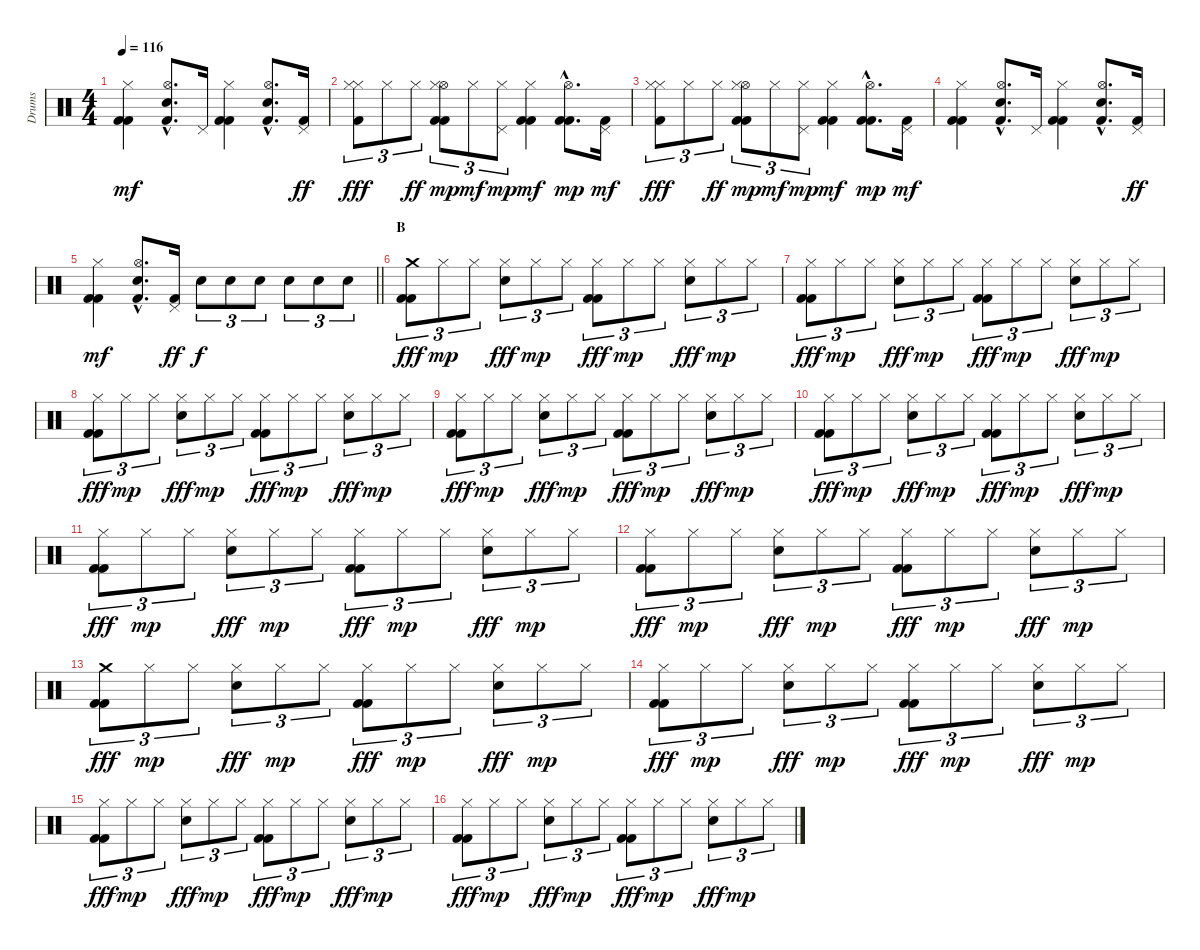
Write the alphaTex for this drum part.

\track ("Drums" "Drums") {instrument percussion}
\staff {score}
\articulation defaults
\ts (4 4)
\tempo 116
\clef neutral
\ks aminor
("Hi-Hat (closed)" "Kick (hit) 2" "Kick (hit) 2").4{dy mf} ("Hi-Hat (open)"{hac} "Electric Snare (hit)"{hac} "Kick (hit) 2"{hac}).8{d} "Pedal Hi-Hat (hit)".16 ("Hi-Hat (closed)" "Kick (hit) 2" "Kick (hit) 2").4 ("Hi-Hat (open)"{hac} "Electric Snare (hit)"{hac} "Kick (hit) 2"{hac}).8{d} ("Pedal Hi-Hat (hit)" "Kick (hit) 2").16{dy ff} |
("Hi-Hat (closed)" "Hi-Hat (closed)" "Kick (hit) 2").8{tu (3 2) dy fff} "Hi-Hat (closed)".8{tu (3 2)} "Hi-Hat (closed)".8{tu (3 2) dy ff} ("Hi-Hat (open)" "Hi-Hat (closed)" "Kick (hit) 2" "Kick (hit) 2").8{tu (3 2) dy mp} "Hi-Hat (closed)".8{tu (3 2) dy mf} ("Pedal Hi-Hat (hit)" "Hi-Hat (closed)").8{tu (3 2) dy mp} ("Hi-Hat (closed)" "Kick (hit) 2" "Kick (hit) 2").4{dy mf} ("Hi-Hat (open)"{hac} "Kick (hit) 2"{hac} "Kick (hit) 2"{hac}).8{d dy mp} ("Pedal Hi-Hat (hit)" "Kick (hit) 2").16{dy mf} |
("Hi-Hat (closed)" "Hi-Hat (closed)" "Kick (hit) 2").8{tu (3 2) dy fff} "Hi-Hat (closed)".8{tu (3 2)} "Hi-Hat (closed)".8{tu (3 2) dy ff} ("Hi-Hat (open)" "Hi-Hat (closed)" "Kick (hit) 2" "Kick (hit) 2").8{tu (3 2) dy mp} "Hi-Hat (closed)".8{tu (3 2) dy mf} ("Pedal Hi-Hat (hit)" "Hi-Hat (closed)").8{tu (3 2) dy mp} ("Hi-Hat (closed)" "Kick (hit) 2" "Kick (hit) 2").4{dy mf} ("Hi-Hat (open)"{hac} "Kick (hit) 2"{hac} "Kick (hit) 2"{hac}).8{d dy mp} ("Pedal Hi-Hat (hit)" "Kick (hit) 2").16{dy mf} |
("Hi-Hat (closed)" "Kick (hit) 2" "Kick (hit) 2").4 ("Hi-Hat (open)"{hac} "Electric Snare (hit)"{hac} "Kick (hit) 2"{hac}).8{d} "Pedal Hi-Hat (hit)".16 ("Hi-Hat (closed)" "Kick (hit) 2" "Kick (hit) 2").4 ("Hi-Hat (open)"{hac} "Electric Snare (hit)"{hac} "Kick (hit) 2"{hac}).8{d} ("Pedal Hi-Hat (hit)" "Kick (hit) 2").16{dy ff} |
\barLineRight lightlight
("Hi-Hat (closed)" "Kick (hit) 2" "Kick (hit) 2").4{dy mf} ("Hi-Hat (open)"{hac} "Electric Snare (hit)"{hac} "Kick (hit) 2"{hac}).8{d} ("Pedal Hi-Hat (hit)" "Kick (hit) 2").16{dy ff} "Electric Snare (hit)".8{tu (3 2) dy f} "Electric Snare (hit)".8{tu (3 2)} "Electric Snare (hit)".8{tu (3 2)} "Electric Snare (hit)".8{tu (3 2)} "Electric Snare (hit)".8{tu (3 2)} "Electric Snare (hit)".8{tu (3 2)} |
\section ("" "B")
("Crash medium (hit)" "Kick (hit) 2" "Kick (hit) 2").8{tu (3 2) dy fff} "Hi-Hat (closed)".8{tu (3 2) dy mp} "Hi-Hat (closed)".8{tu (3 2)} ("Hi-Hat (closed)" "Snare (hit) 2").8{tu (3 2) dy fff} "Hi-Hat (closed)".8{tu (3 2) dy mp} "Hi-Hat (closed)".8{tu (3 2)} ("Hi-Hat (closed)" "Kick (hit) 2" "Kick (hit) 2").8{tu (3 2) dy fff} "Hi-Hat (closed)".8{tu (3 2) dy mp} "Hi-Hat (closed)".8{tu (3 2)} ("Hi-Hat (closed)" "Snare (hit) 2").8{tu (3 2) dy fff} "Hi-Hat (closed)".8{tu (3 2) dy mp} "Hi-Hat (closed)".8{tu (3 2)} |
("Hi-Hat (closed)" "Kick (hit) 2" "Kick (hit) 2").8{tu (3 2) dy fff} "Hi-Hat (closed)".8{tu (3 2) dy mp} "Hi-Hat (closed)".8{tu (3 2)} ("Hi-Hat (closed)" "Snare (hit) 2").8{tu (3 2) dy fff} "Hi-Hat (closed)".8{tu (3 2) dy mp} "Hi-Hat (closed)".8{tu (3 2)} ("Hi-Hat (closed)" "Kick (hit) 2" "Kick (hit) 2").8{tu (3 2) dy fff} "Hi-Hat (closed)".8{tu (3 2) dy mp} "Hi-Hat (closed)".8{tu (3 2)} ("Hi-Hat (closed)" "Snare (hit) 2").8{tu (3 2) dy fff} "Hi-Hat (closed)".8{tu (3 2) dy mp} "Hi-Hat (closed)".8{tu (3 2)} |
("Hi-Hat (closed)" "Kick (hit) 2" "Kick (hit) 2").8{tu (3 2) dy fff} "Hi-Hat (closed)".8{tu (3 2) dy mp} "Hi-Hat (closed)".8{tu (3 2)} ("Hi-Hat (closed)" "Snare (hit) 2").8{tu (3 2) dy fff} "Hi-Hat (closed)".8{tu (3 2) dy mp} "Hi-Hat (closed)".8{tu (3 2)} ("Hi-Hat (closed)" "Kick (hit) 2" "Kick (hit) 2").8{tu (3 2) dy fff} "Hi-Hat (closed)".8{tu (3 2) dy mp} "Hi-Hat (closed)".8{tu (3 2)} ("Hi-Hat (closed)" "Snare (hit) 2").8{tu (3 2) dy fff} "Hi-Hat (closed)".8{tu (3 2) dy mp} "Hi-Hat (closed)".8{tu (3 2)} |
("Hi-Hat (closed)" "Kick (hit) 2" "Kick (hit) 2").8{tu (3 2) dy fff} "Hi-Hat (closed)".8{tu (3 2) dy mp} "Hi-Hat (closed)".8{tu (3 2)} ("Hi-Hat (closed)" "Snare (hit) 2").8{tu (3 2) dy fff} "Hi-Hat (closed)".8{tu (3 2) dy mp} "Hi-Hat (closed)".8{tu (3 2)} ("Hi-Hat (closed)" "Kick (hit) 2" "Kick (hit) 2").8{tu (3 2) dy fff} "Hi-Hat (closed)".8{tu (3 2) dy mp} "Hi-Hat (closed)".8{tu (3 2)} ("Hi-Hat (closed)" "Snare (hit) 2").8{tu (3 2) dy fff} "Hi-Hat (closed)".8{tu (3 2) dy mp} "Hi-Hat (closed)".8{tu (3 2)} |
("Hi-Hat (closed)" "Kick (hit) 2" "Kick (hit) 2").8{tu (3 2) dy fff} "Hi-Hat (closed)".8{tu (3 2) dy mp} "Hi-Hat (closed)".8{tu (3 2)} ("Hi-Hat (closed)" "Snare (hit) 2").8{tu (3 2) dy fff} "Hi-Hat (closed)".8{tu (3 2) dy mp} "Hi-Hat (closed)".8{tu (3 2)} ("Hi-Hat (closed)" "Kick (hit) 2" "Kick (hit) 2").8{tu (3 2) dy fff} "Hi-Hat (closed)".8{tu (3 2) dy mp} "Hi-Hat (closed)".8{tu (3 2)} ("Hi-Hat (closed)" "Snare (hit) 2").8{tu (3 2) dy fff} "Hi-Hat (closed)".8{tu (3 2) dy mp} "Hi-Hat (closed)".8{tu (3 2)} |
("Hi-Hat (closed)" "Kick (hit) 2" "Kick (hit) 2").8{tu (3 2) dy fff} "Hi-Hat (closed)".8{tu (3 2) dy mp} "Hi-Hat (closed)".8{tu (3 2)} ("Hi-Hat (closed)" "Snare (hit) 2").8{tu (3 2) dy fff} "Hi-Hat (closed)".8{tu (3 2) dy mp} "Hi-Hat (closed)".8{tu (3 2)} ("Hi-Hat (closed)" "Kick (hit) 2" "Kick (hit) 2").8{tu (3 2) dy fff} "Hi-Hat (closed)".8{tu (3 2) dy mp} "Hi-Hat (closed)".8{tu (3 2)} ("Hi-Hat (closed)" "Snare (hit) 2").8{tu (3 2) dy fff} "Hi-Hat (closed)".8{tu (3 2) dy mp} "Hi-Hat (closed)".8{tu (3 2)} |
("Hi-Hat (closed)" "Kick (hit) 2" "Kick (hit) 2").8{tu (3 2) dy fff} "Hi-Hat (closed)".8{tu (3 2) dy mp} "Hi-Hat (closed)".8{tu (3 2)} ("Hi-Hat (closed)" "Snare (hit) 2").8{tu (3 2) dy fff} "Hi-Hat (closed)".8{tu (3 2) dy mp} "Hi-Hat (closed)".8{tu (3 2)} ("Hi-Hat (closed)" "Kick (hit) 2" "Kick (hit) 2").8{tu (3 2) dy fff} "Hi-Hat (closed)".8{tu (3 2) dy mp} "Hi-Hat (closed)".8{tu (3 2)} ("Hi-Hat (closed)" "Snare (hit) 2").8{tu (3 2) dy fff} "Hi-Hat (closed)".8{tu (3 2) dy mp} "Hi-Hat (closed)".8{tu (3 2)} |
("Crash medium (hit)" "Kick (hit) 2" "Kick (hit) 2").8{tu (3 2) dy fff} "Hi-Hat (closed)".8{tu (3 2) dy mp} "Hi-Hat (closed)".8{tu (3 2)} ("Hi-Hat (closed)" "Snare (hit) 2").8{tu (3 2) dy fff} "Hi-Hat (closed)".8{tu (3 2) dy mp} "Hi-Hat (closed)".8{tu (3 2)} ("Hi-Hat (closed)" "Kick (hit) 2" "Kick (hit) 2").8{tu (3 2) dy fff} "Hi-Hat (closed)".8{tu (3 2) dy mp} "Hi-Hat (closed)".8{tu (3 2)} ("Hi-Hat (closed)" "Snare (hit) 2").8{tu (3 2) dy fff} "Hi-Hat (closed)".8{tu (3 2) dy mp} "Hi-Hat (closed)".8{tu (3 2)} |
("Hi-Hat (closed)" "Kick (hit) 2" "Kick (hit) 2").8{tu (3 2) dy fff} "Hi-Hat (closed)".8{tu (3 2) dy mp} "Hi-Hat (closed)".8{tu (3 2)} ("Hi-Hat (closed)" "Snare (hit) 2").8{tu (3 2) dy fff} "Hi-Hat (closed)".8{tu (3 2) dy mp} "Hi-Hat (closed)".8{tu (3 2)} ("Hi-Hat (closed)" "Kick (hit) 2" "Kick (hit) 2").8{tu (3 2) dy fff} "Hi-Hat (closed)".8{tu (3 2) dy mp} "Hi-Hat (closed)".8{tu (3 2)} ("Hi-Hat (closed)" "Snare (hit) 2").8{tu (3 2) dy fff} "Hi-Hat (closed)".8{tu (3 2) dy mp} "Hi-Hat (closed)".8{tu (3 2)} |
("Hi-Hat (closed)" "Kick (hit) 2" "Kick (hit) 2").8{tu (3 2) dy fff} "Hi-Hat (closed)".8{tu (3 2) dy mp} "Hi-Hat (closed)".8{tu (3 2)} ("Hi-Hat (closed)" "Snare (hit) 2").8{tu (3 2) dy fff} "Hi-Hat (closed)".8{tu (3 2) dy mp} "Hi-Hat (closed)".8{tu (3 2)} ("Hi-Hat (closed)" "Kick (hit) 2" "Kick (hit) 2").8{tu (3 2) dy fff} "Hi-Hat (closed)".8{tu (3 2) dy mp} "Hi-Hat (closed)".8{tu (3 2)} ("Hi-Hat (closed)" "Snare (hit) 2").8{tu (3 2) dy fff} "Hi-Hat (closed)".8{tu (3 2) dy mp} "Hi-Hat (closed)".8{tu (3 2)} |
("Hi-Hat (closed)" "Kick (hit) 2" "Kick (hit) 2").8{tu (3 2) dy fff} "Hi-Hat (closed)".8{tu (3 2) dy mp} "Hi-Hat (closed)".8{tu (3 2)} ("Hi-Hat (closed)" "Snare (hit) 2").8{tu (3 2) dy fff} "Hi-Hat (closed)".8{tu (3 2) dy mp} "Hi-Hat (closed)".8{tu (3 2)} ("Hi-Hat (closed)" "Kick (hit) 2" "Kick (hit) 2").8{tu (3 2) dy fff} "Hi-Hat (closed)".8{tu (3 2) dy mp} "Hi-Hat (closed)".8{tu (3 2)} ("Hi-Hat (closed)" "Snare (hit) 2").8{tu (3 2) dy fff} "Hi-Hat (closed)".8{tu (3 2) dy mp} "Hi-Hat (closed)".8{tu (3 2)}
